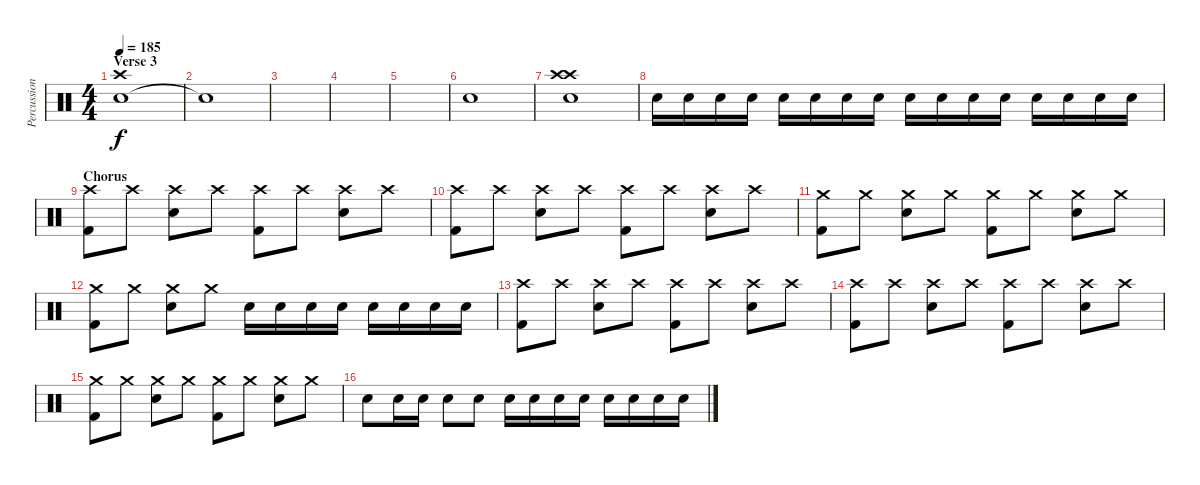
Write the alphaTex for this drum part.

\track ("Percussion" "Percussion") {instrument percussion}
\staff {score}
\articulation defaults
\ts (4 4)
\section ("" "Verse 3")
\tempo 185
\clef neutral
\ks c
("Electric Snare (hit)" "Crash high (hit)").1{dy f} |
"Snare (hit)"{t}.1 |
|
|
|
"Snare (hit)".1 |
("Crash high (hit)" "Electric Snare (hit)" "Crash high (hit)").1 |
"Electric Snare (hit)".16 "Electric Snare (hit)".16 "Electric Snare (hit)".16 "Electric Snare (hit)".16 "Electric Snare (hit)".16 "Electric Snare (hit)".16 "Electric Snare (hit)".16 "Electric Snare (hit)".16 "Electric Snare (hit)".16 "Electric Snare (hit)".16 "Electric Snare (hit)".16 "Electric Snare (hit)".16 "Electric Snare (hit)".16 "Electric Snare (hit)".16 "Electric Snare (hit)".16 "Electric Snare (hit)".16 |
\section ("" "Chorus")
("Crash high (hit)" "Kick (hit) 2").8 "Crash high (hit)".8 ("Crash high (hit)" "Electric Snare (hit)").8 "Crash high (hit)".8 ("Crash high (hit)" "Kick (hit) 2").8 "Crash high (hit)".8 ("Crash high (hit)" "Electric Snare (hit)").8 "Crash high (hit)".8 |
("Crash high (hit)" "Kick (hit) 2").8 "Crash high (hit)".8 ("Crash high (hit)" "Electric Snare (hit)").8 "Crash high (hit)".8 ("Crash high (hit)" "Kick (hit) 2").8 "Crash high (hit)".8 ("Crash high (hit)" "Electric Snare (hit)").8 "Crash high (hit)".8 |
("Crash medium (hit)" "Kick (hit) 2").8 "Crash medium (hit)".8 ("Crash medium (hit)" "Electric Snare (hit)").8 "Crash medium (hit)".8 ("Crash medium (hit)" "Kick (hit) 2").8 "Crash medium (hit)".8 ("Crash medium (hit)" "Electric Snare (hit)").8 "Crash medium (hit)".8 |
("Crash medium (hit)" "Kick (hit) 2").8 "Crash medium (hit)".8 ("Crash medium (hit)" "Electric Snare (hit)").8 "Crash medium (hit)".8 "Electric Snare (hit)".16 "Electric Snare (hit)".16 "Electric Snare (hit)".16 "Electric Snare (hit)".16 "Electric Snare (hit)".16 "Electric Snare (hit)".16 "Electric Snare (hit)".16 "Electric Snare (hit)".16 |
("Crash high (hit)" "Kick (hit) 2").8 "Crash high (hit)".8 ("Crash high (hit)" "Electric Snare (hit)").8 "Crash high (hit)".8 ("Crash high (hit)" "Kick (hit) 2").8 "Crash high (hit)".8 ("Crash high (hit)" "Electric Snare (hit)").8 "Crash high (hit)".8 |
("Crash high (hit)" "Kick (hit) 2").8 "Crash high (hit)".8 ("Crash high (hit)" "Electric Snare (hit)").8 "Crash high (hit)".8 ("Crash high (hit)" "Kick (hit) 2").8 "Crash high (hit)".8 ("Crash high (hit)" "Electric Snare (hit)").8 "Crash high (hit)".8 |
("Crash medium (hit)" "Kick (hit) 2").8 "Crash medium (hit)".8 ("Crash medium (hit)" "Electric Snare (hit)").8 "Crash medium (hit)".8 ("Crash medium (hit)" "Kick (hit) 2").8 "Crash medium (hit)".8 ("Crash medium (hit)" "Electric Snare (hit)").8 "Crash medium (hit)".8 |
"Electric Snare (hit)".8 "Electric Snare (hit)".16 "Electric Snare (hit)".16 "Electric Snare (hit)".8 "Electric Snare (hit)".8 "Electric Snare (hit)".16 "Electric Snare (hit)".16 "Electric Snare (hit)".16 "Electric Snare (hit)".16 "Electric Snare (hit)".16 "Electric Snare (hit)".16 "Electric Snare (hit)".16 "Electric Snare (hit)".16
